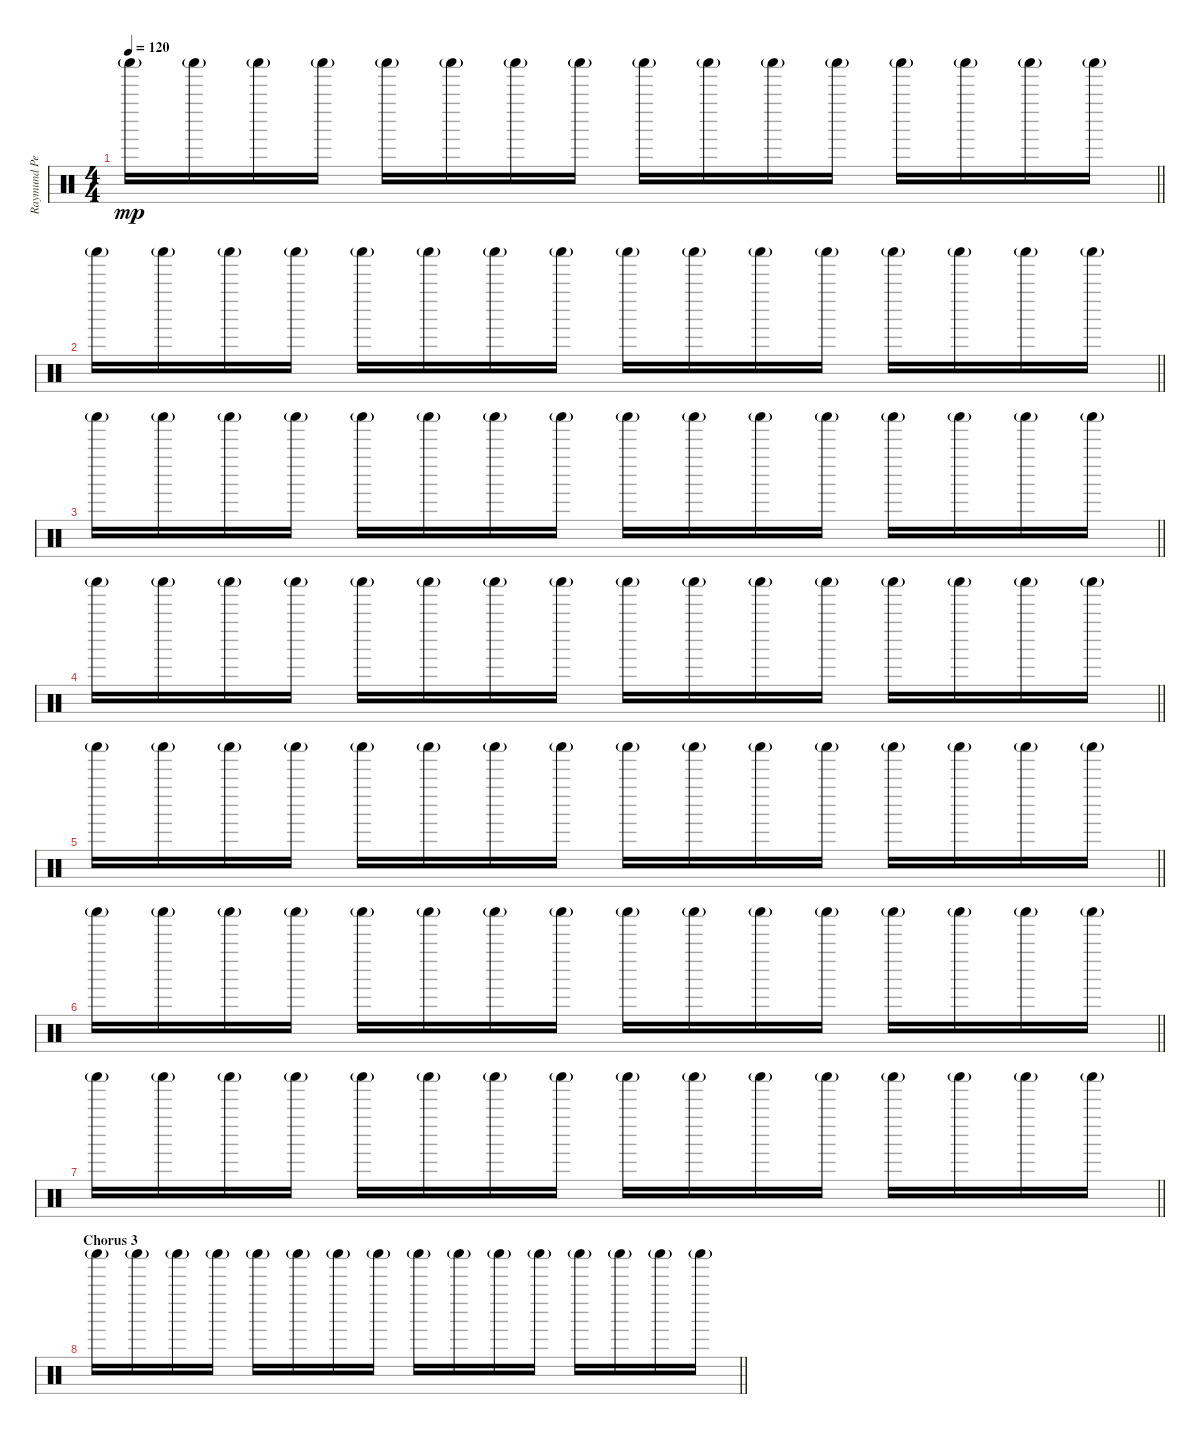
\track ("Raymund Percussion" "Raymund Pe") {instrument percussion}
\staff {score}
\articulation defaults
\ts (4 4)
\tempo 120
\clef neutral
\barLineRight lightlight
\ks c "Shaker (hit)"{g}.16{dy mp} "Shaker (hit)"{g}.16 "Shaker (hit)"{g}.16 "Shaker (hit)"{g}.16 "Shaker (hit)"{g}.16 "Shaker (hit)"{g}.16 "Shaker (hit)"{g}.16 "Shaker (hit)"{g}.16 "Shaker (hit)"{g}.16 "Shaker (hit)"{g}.16 "Shaker (hit)"{g}.16 "Shaker (hit)"{g}.16 "Shaker (hit)"{g}.16 "Shaker (hit)"{g}.16 "Shaker (hit)"{g}.16 "Shaker (hit)"{g}.16
|
\barLineRight lightlight "Shaker (hit)"{g}.16 "Shaker (hit)"{g}.16 "Shaker (hit)"{g}.16 "Shaker (hit)"{g}.16 "Shaker (hit)"{g}.16 "Shaker (hit)"{g}.16 "Shaker (hit)"{g}.16 "Shaker (hit)"{g}.16 "Shaker (hit)"{g}.16 "Shaker (hit)"{g}.16 "Shaker (hit)"{g}.16 "Shaker (hit)"{g}.16 "Shaker (hit)"{g}.16 "Shaker (hit)"{g}.16 "Shaker (hit)"{g}.16 "Shaker (hit)"{g}.16
|
\barLineRight lightlight "Shaker (hit)"{g}.16 "Shaker (hit)"{g}.16 "Shaker (hit)"{g}.16 "Shaker (hit)"{g}.16 "Shaker (hit)"{g}.16 "Shaker (hit)"{g}.16 "Shaker (hit)"{g}.16 "Shaker (hit)"{g}.16 "Shaker (hit)"{g}.16 "Shaker (hit)"{g}.16 "Shaker (hit)"{g}.16 "Shaker (hit)"{g}.16 "Shaker (hit)"{g}.16 "Shaker (hit)"{g}.16 "Shaker (hit)"{g}.16 "Shaker (hit)"{g}.16
|
\barLineRight lightlight "Shaker (hit)"{g}.16 "Shaker (hit)"{g}.16 "Shaker (hit)"{g}.16 "Shaker (hit)"{g}.16 "Shaker (hit)"{g}.16 "Shaker (hit)"{g}.16 "Shaker (hit)"{g}.16 "Shaker (hit)"{g}.16 "Shaker (hit)"{g}.16 "Shaker (hit)"{g}.16 "Shaker (hit)"{g}.16 "Shaker (hit)"{g}.16 "Shaker (hit)"{g}.16 "Shaker (hit)"{g}.16 "Shaker (hit)"{g}.16 "Shaker (hit)"{g}.16
|
\barLineRight lightlight "Shaker (hit)"{g}.16 "Shaker (hit)"{g}.16 "Shaker (hit)"{g}.16 "Shaker (hit)"{g}.16 "Shaker (hit)"{g}.16 "Shaker (hit)"{g}.16 "Shaker (hit)"{g}.16 "Shaker (hit)"{g}.16 "Shaker (hit)"{g}.16 "Shaker (hit)"{g}.16 "Shaker (hit)"{g}.16 "Shaker (hit)"{g}.16 "Shaker (hit)"{g}.16 "Shaker (hit)"{g}.16 "Shaker (hit)"{g}.16 "Shaker (hit)"{g}.16
|
\barLineRight lightlight "Shaker (hit)"{g}.16 "Shaker (hit)"{g}.16 "Shaker (hit)"{g}.16 "Shaker (hit)"{g}.16 "Shaker (hit)"{g}.16 "Shaker (hit)"{g}.16 "Shaker (hit)"{g}.16 "Shaker (hit)"{g}.16 "Shaker (hit)"{g}.16 "Shaker (hit)"{g}.16 "Shaker (hit)"{g}.16 "Shaker (hit)"{g}.16 "Shaker (hit)"{g}.16 "Shaker (hit)"{g}.16 "Shaker (hit)"{g}.16 "Shaker (hit)"{g}.16
|
\barLineRight lightlight "Shaker (hit)"{g}.16 "Shaker (hit)"{g}.16 "Shaker (hit)"{g}.16 "Shaker (hit)"{g}.16 "Shaker (hit)"{g}.16 "Shaker (hit)"{g}.16 "Shaker (hit)"{g}.16 "Shaker (hit)"{g}.16 "Shaker (hit)"{g}.16 "Shaker (hit)"{g}.16 "Shaker (hit)"{g}.16 "Shaker (hit)"{g}.16 "Shaker (hit)"{g}.16 "Shaker (hit)"{g}.16 "Shaker (hit)"{g}.16 "Shaker (hit)"{g}.16
|
\section ("" "Chorus 3")
\barLineRight lightlight "Shaker (hit)"{g}.16 "Shaker (hit)"{g}.16 "Shaker (hit)"{g}.16 "Shaker (hit)"{g}.16 "Shaker (hit)"{g}.16 "Shaker (hit)"{g}.16 "Shaker (hit)"{g}.16 "Shaker (hit)"{g}.16 "Shaker (hit)"{g}.16 "Shaker (hit)"{g}.16 "Shaker (hit)"{g}.16 "Shaker (hit)"{g}.16 "Shaker (hit)"{g}.16 "Shaker (hit)"{g}.16 "Shaker (hit)"{g}.16 "Shaker (hit)"{g}.16
